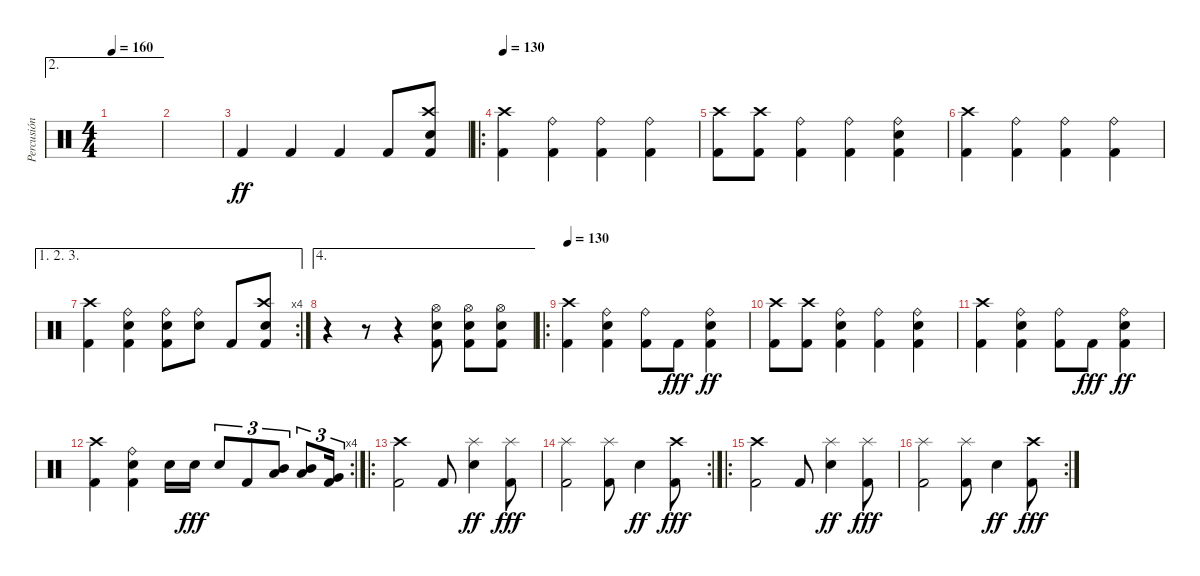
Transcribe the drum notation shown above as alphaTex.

\track ("Percusión" "Percusión") {instrument percussion}
\staff {score}
\articulation defaults
\ae 2
\ts (4 4)
\tempo 160
\clef neutral
\ks c
|
|
"Kick (hit) 2".4{dy ff} "Kick (hit) 2".4 "Kick (hit) 2".4 "Kick (hit) 2".8 ("Crash high (hit)" "Snare (hit) 2" "Kick (hit) 2").8 |
\ro
\tempo 130
("Crash high (hit)" "Kick (hit) 2").4 ("Ride (bell)" "Kick (hit) 2").4 ("Ride (bell)" "Kick (hit) 2").4 ("Ride (bell)" "Kick (hit) 2").4 |
("Crash high (hit)" "Kick (hit) 2").8 ("Crash high (hit)" "Kick (hit) 2").8 ("Ride (bell)" "Kick (hit) 2").4 ("Ride (bell)" "Kick (hit) 2").4 ("Ride (bell)" "Snare (hit) 2" "Kick (hit) 2").4 |
("Crash high (hit)" "Kick (hit) 2").4 ("Ride (bell)" "Kick (hit) 2").4 ("Ride (bell)" "Kick (hit) 2").4 ("Ride (bell)" "Kick (hit) 2").4 |
\ae (1 2 3)
\rc 4
("Crash high (hit)" "Kick (hit) 2").4 ("Ride (bell)" "Snare (hit) 2" "Kick (hit) 2").4 ("Ride (bell)" "Snare (hit) 2" "Kick (hit) 2").8 ("Ride (bell)" "Snare (hit) 2").8 "Kick (hit) 2".8 ("Crash high (hit)" "Snare (hit) 2" "Kick (hit) 2").8 |
\ae 4
r.4 r.8 r.4 ("Hi-Hat (open)" "Snare (hit) 2" "Kick (hit) 2").8 ("Hi-Hat (open)" "Snare (hit) 2" "Kick (hit) 2").8 ("Hi-Hat (open)" "Snare (hit) 2" "Kick (hit) 2").8 |
\ro
\tempo 130
("Crash high (hit)" "Kick (hit) 2").4 ("Ride (bell)" "Snare (hit) 2" "Kick (hit) 2").4 ("Ride (bell)" "Kick (hit) 2").8 "Kick (hit) 2".8{dy fff} ("Ride (bell)" "Snare (hit) 2" "Kick (hit) 2").4{dy ff} |
("Crash high (hit)" "Kick (hit) 2").8 ("Crash high (hit)" "Kick (hit) 2").8 ("Ride (bell)" "Snare (hit) 2" "Kick (hit) 2").4 ("Ride (bell)" "Kick (hit) 2").4 ("Ride (bell)" "Snare (hit) 2" "Kick (hit) 2").4 |
("Crash high (hit)" "Kick (hit) 2").4 ("Ride (bell)" "Snare (hit) 2" "Kick (hit) 2").4 ("Ride (bell)" "Kick (hit) 2").8 "Kick (hit) 2".8{dy fff} ("Ride (bell)" "Snare (hit) 2" "Kick (hit) 2").4{dy ff} |
\rc 4
("Crash high (hit)" "Kick (hit) 2").4 ("Ride (bell)" "Snare (hit) 2" "Kick (hit) 2").4 "Snare (hit) 2".16 "Snare (hit) 2".16{dy fff} "Snare (hit) 2".8{tu (3 2)} "Kick (hit) 2".8{tu (3 2)} ("Low Tom (hit)" "Mid Tom (hit)").8{tu (3 2)} ("Low Tom (hit)" "Mid Tom (hit)").8{tu (3 2)} ("Very Low Tom (hit)" "Kick (hit) 2").16{tu (3 2)} |
\ro
("Crash high (hit)" "Kick (hit) 2").2 "Kick (hit) 2".8 ("Splash (hit)" "Snare (hit) 2").4{dy ff} ("Splash (hit)" "Kick (hit) 2").8{dy fff} |
\rc 2
("Splash (hit)" "Kick (hit) 2").2 ("Splash (hit)" "Kick (hit) 2").8 "Snare (hit) 2".4{dy ff} ("Crash high (hit)" "Kick (hit) 2").8{dy fff} |
\ro
("Crash high (hit)" "Kick (hit) 2").2 "Kick (hit) 2".8 ("Splash (hit)" "Snare (hit) 2").4{dy ff} ("Splash (hit)" "Kick (hit) 2").8{dy fff} |
\rc 2
("Splash (hit)" "Kick (hit) 2").2 ("Splash (hit)" "Kick (hit) 2").8 "Snare (hit) 2".4{dy ff} ("Crash high (hit)" "Kick (hit) 2").8{dy fff}
